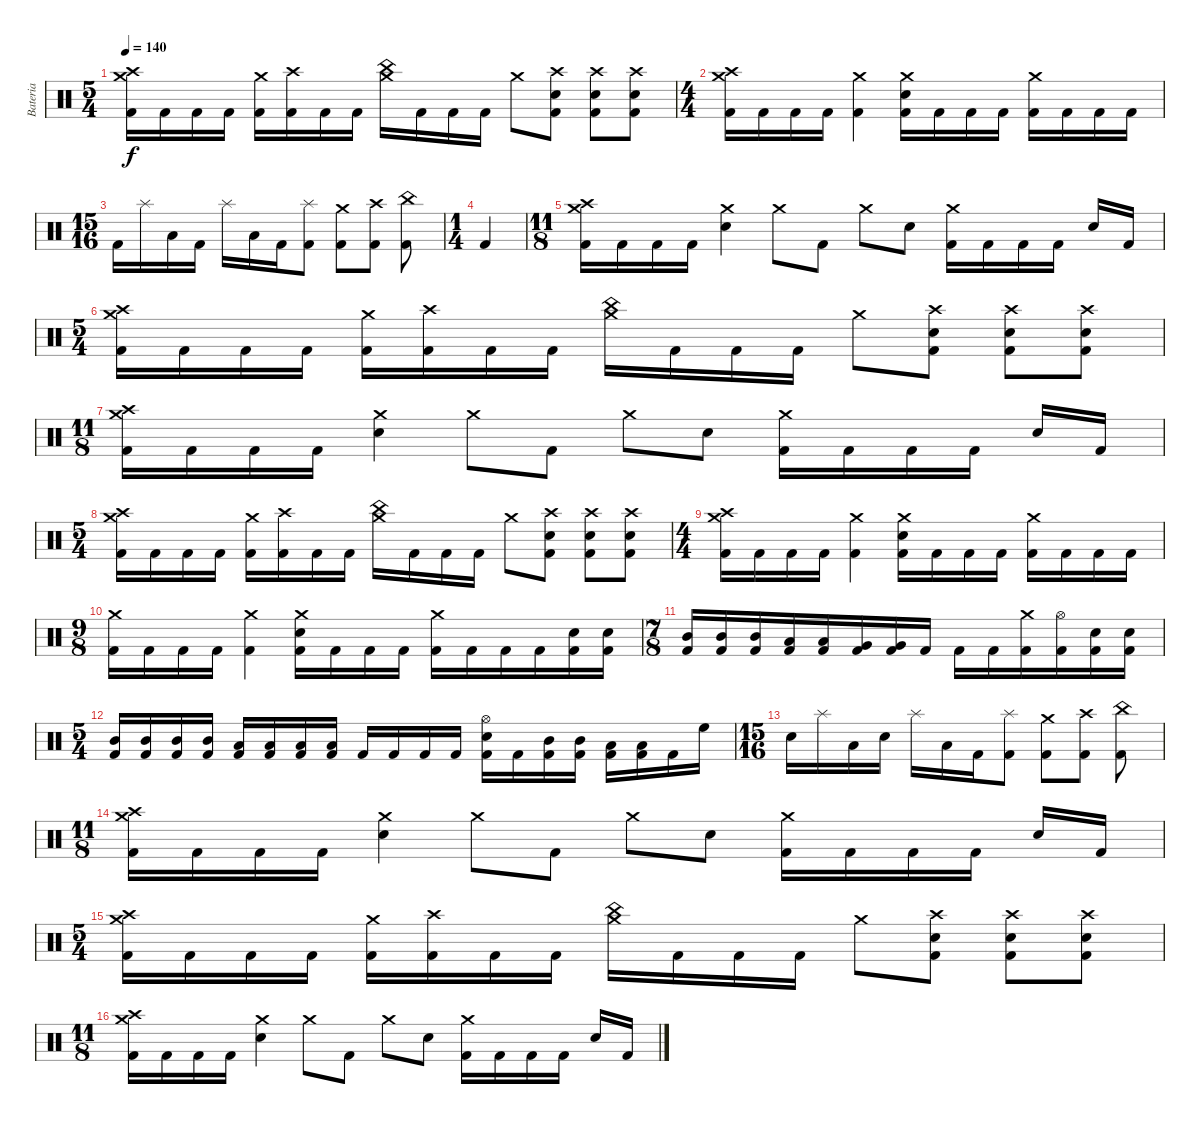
\track ("Bateria" "Bateria") {instrument percussion}
\staff {score}
\articulation defaults
\ts (5 4)
\tempo 140
\clef neutral
\ks c
("Crash medium (hit)" "Crash high (hit)" "Kick (hit) 2").16{dy f} "Kick (hit) 2".16 "Kick (hit) 2".16 "Kick (hit) 2".16 ("Crash medium (hit)" "Kick (hit) 2").16 ("Crash high (hit)" "Kick (hit) 2").16 "Kick (hit) 2".16 "Kick (hit) 2".16 ("China (hit)" "Crash medium (hit)").16 "Kick (hit) 2".16 "Kick (hit) 2".16 "Kick (hit) 2".16 "Crash medium (hit)".8 ("Crash high (hit)" "Snare (hit) 2" "Kick (hit) 2").8 ("Crash high (hit)" "Snare (hit) 2" "Kick (hit) 2").8 ("Crash high (hit)" "Snare (hit) 2" "Kick (hit) 2").8 |
\ts (4 4)
("Crash high (hit)" "Crash medium (hit)" "Kick (hit) 2").16 "Kick (hit) 2".16 "Kick (hit) 2".16 "Kick (hit) 2".16 ("Crash medium (hit)" "Kick (hit) 2").4 ("Crash medium (hit)" "Snare (hit) 2" "Kick (hit) 2").16 "Kick (hit) 2".16 "Kick (hit) 2".16 "Kick (hit) 2".16 ("Crash medium (hit)" "Kick (hit) 2").16 "Kick (hit) 2".16 "Kick (hit) 2".16 "Kick (hit) 2".16 |
\ts (15 16)
"Kick (hit) 2".16 "Splash (hit)".16 "Low Tom (hit)".16 "Kick (hit) 2".16 "Splash (hit)".16 "Low Tom (hit)".16 "Kick (hit) 2".16 ("Splash (hit)" "Kick (hit) 2").8 ("Crash medium (hit)" "Kick (hit) 2").8 ("Crash high (hit)" "Kick (hit) 2").8 ("China (hit)" "Kick (hit) 2").8 |
\ts (1 4)
"Kick (hit) 2".4 |
\ts (11 8)
("Crash high (hit)" "Crash medium (hit)" "Kick (hit) 2").16 "Kick (hit) 2".16 "Kick (hit) 2".16 "Kick (hit) 2".16 ("Crash medium (hit)" "Snare (hit) 2").4 "Crash medium (hit)".8 "Kick (hit) 2".8 "Crash medium (hit)".8 "Snare (hit) 2".8 ("Crash medium (hit)" "Kick (hit) 2").16 "Kick (hit) 2".16 "Kick (hit) 2".16 "Kick (hit) 2".16 "Snare (hit) 2".16 "Kick (hit) 2".16 |
\ts (5 4)
("Crash medium (hit)" "Crash high (hit)" "Kick (hit) 2").16 "Kick (hit) 2".16 "Kick (hit) 2".16 "Kick (hit) 2".16 ("Crash medium (hit)" "Kick (hit) 2").16 ("Crash high (hit)" "Kick (hit) 2").16 "Kick (hit) 2".16 "Kick (hit) 2".16 ("China (hit)" "Crash medium (hit)").16 "Kick (hit) 2".16 "Kick (hit) 2".16 "Kick (hit) 2".16 "Crash medium (hit)".8 ("Crash high (hit)" "Snare (hit) 2" "Kick (hit) 2").8 ("Crash high (hit)" "Snare (hit) 2" "Kick (hit) 2").8 ("Crash high (hit)" "Snare (hit) 2" "Kick (hit) 2").8 |
\ts (11 8)
("Crash high (hit)" "Crash medium (hit)" "Kick (hit) 2").16 "Kick (hit) 2".16 "Kick (hit) 2".16 "Kick (hit) 2".16 ("Crash medium (hit)" "Snare (hit) 2").4 "Crash medium (hit)".8 "Kick (hit) 2".8 "Crash medium (hit)".8 "Snare (hit) 2".8 ("Crash medium (hit)" "Kick (hit) 2").16 "Kick (hit) 2".16 "Kick (hit) 2".16 "Kick (hit) 2".16 "Snare (hit) 2".16 "Kick (hit) 2".16 |
\ts (5 4)
("Crash medium (hit)" "Crash high (hit)" "Kick (hit) 2").16 "Kick (hit) 2".16 "Kick (hit) 2".16 "Kick (hit) 2".16 ("Crash medium (hit)" "Kick (hit) 2").16 ("Crash high (hit)" "Kick (hit) 2").16 "Kick (hit) 2".16 "Kick (hit) 2".16 ("China (hit)" "Crash medium (hit)").16 "Kick (hit) 2".16 "Kick (hit) 2".16 "Kick (hit) 2".16 "Crash medium (hit)".8 ("Crash high (hit)" "Snare (hit) 2" "Kick (hit) 2").8 ("Crash high (hit)" "Snare (hit) 2" "Kick (hit) 2").8 ("Crash high (hit)" "Snare (hit) 2" "Kick (hit) 2").8 |
\ts (4 4)
("Crash high (hit)" "Crash medium (hit)" "Kick (hit) 2").16 "Kick (hit) 2".16 "Kick (hit) 2".16 "Kick (hit) 2".16 ("Crash medium (hit)" "Kick (hit) 2").4 ("Crash medium (hit)" "Snare (hit) 2" "Kick (hit) 2").16 "Kick (hit) 2".16 "Kick (hit) 2".16 "Kick (hit) 2".16 ("Crash medium (hit)" "Kick (hit) 2").16 "Kick (hit) 2".16 "Kick (hit) 2".16 "Kick (hit) 2".16 |
\ts (9 8)
("Crash medium (hit)" "Kick (hit) 2").16 "Kick (hit) 2".16 "Kick (hit) 2".16 "Kick (hit) 2".16 ("Crash medium (hit)" "Kick (hit) 2").4 ("Crash medium (hit)" "Snare (hit) 2" "Kick (hit) 2").16 "Kick (hit) 2".16 "Kick (hit) 2".16 "Kick (hit) 2".16 ("Crash medium (hit)" "Kick (hit) 2").16 "Kick (hit) 2".16 "Kick (hit) 2".16 "Kick (hit) 2".16 ("Snare (hit) 2" "Kick (hit) 2").16 ("Snare (hit) 2" "Kick (hit) 2").16 |
\ts (7 8)
("Mid Tom (hit)" "Kick (hit) 2").16 ("Mid Tom (hit)" "Kick (hit) 2").16 ("Mid Tom (hit)" "Kick (hit) 2").16 ("Low Tom (hit)" "Kick (hit) 2").16 ("Low Tom (hit)" "Kick (hit) 2").16 ("Very Low Tom (hit)" "Kick (hit) 2").16 ("Very Low Tom (hit)" "Kick (hit) 2").16 "Kick (hit) 2".16 "Kick (hit) 2".16 "Kick (hit) 2".16 ("Crash medium (hit)" "Kick (hit) 2").16 ("Hi-Hat (open)" "Kick (hit) 2").16 ("Snare (hit) 2" "Kick (hit) 2").16 ("Snare (hit) 2" "Kick (hit) 2").16 |
\ts (5 4)
("Mid Tom (hit)" "Kick (hit) 2").16 ("Mid Tom (hit)" "Kick (hit) 2").16 ("Mid Tom (hit)" "Kick (hit) 2").16 ("Mid Tom (hit)" "Kick (hit) 2").16 ("Low Tom (hit)" "Kick (hit) 2").16 ("Low Tom (hit)" "Kick (hit) 2").16 ("Low Tom (hit)" "Kick (hit) 2").16 ("Low Tom (hit)" "Kick (hit) 2").16 "Kick (hit) 2".16 "Kick (hit) 2".16 "Kick (hit) 2".16 "Kick (hit) 2".16 ("Hi-Hat (open)" "Snare (hit) 2" "Kick (hit) 2").16 "Kick (hit) 2".16 ("Mid Tom (hit)" "Kick (hit) 2").16 ("Mid Tom (hit)" "Kick (hit) 2").16 ("Low Tom (hit)" "Kick (hit) 2").16 ("Low Tom (hit)" "Kick (hit) 2").16 "Kick (hit) 2".16 "High Floor Tom (hit)".16 |
\ts (15 16)
"Snare (hit) 2".16 "Splash (hit)".16 "Low Tom (hit)".16 "Snare (hit) 2".16 "Splash (hit)".16 "Low Tom (hit)".16 "Kick (hit) 2".16 ("Splash (hit)" "Kick (hit) 2").8 ("Crash medium (hit)" "Kick (hit) 2").8 ("Crash high (hit)" "Kick (hit) 2").8 ("China (hit)" "Kick (hit) 2").8 |
\ts (11 8)
("Crash high (hit)" "Crash medium (hit)" "Kick (hit) 2").16 "Kick (hit) 2".16 "Kick (hit) 2".16 "Kick (hit) 2".16 ("Crash medium (hit)" "Snare (hit) 2").4 "Crash medium (hit)".8 "Kick (hit) 2".8 "Crash medium (hit)".8 "Snare (hit) 2".8 ("Crash medium (hit)" "Kick (hit) 2").16 "Kick (hit) 2".16 "Kick (hit) 2".16 "Kick (hit) 2".16 "Snare (hit) 2".16 "Kick (hit) 2".16 |
\ts (5 4)
("Crash medium (hit)" "Crash high (hit)" "Kick (hit) 2").16 "Kick (hit) 2".16 "Kick (hit) 2".16 "Kick (hit) 2".16 ("Crash medium (hit)" "Kick (hit) 2").16 ("Crash high (hit)" "Kick (hit) 2").16 "Kick (hit) 2".16 "Kick (hit) 2".16 ("China (hit)" "Crash medium (hit)").16 "Kick (hit) 2".16 "Kick (hit) 2".16 "Kick (hit) 2".16 "Crash medium (hit)".8 ("Crash high (hit)" "Snare (hit) 2" "Kick (hit) 2").8 ("Crash high (hit)" "Snare (hit) 2" "Kick (hit) 2").8 ("Crash high (hit)" "Snare (hit) 2" "Kick (hit) 2").8 |
\ts (11 8)
("Crash high (hit)" "Crash medium (hit)" "Kick (hit) 2").16 "Kick (hit) 2".16 "Kick (hit) 2".16 "Kick (hit) 2".16 ("Crash medium (hit)" "Snare (hit) 2").4 "Crash medium (hit)".8 "Kick (hit) 2".8 "Crash medium (hit)".8 "Snare (hit) 2".8 ("Crash medium (hit)" "Kick (hit) 2").16 "Kick (hit) 2".16 "Kick (hit) 2".16 "Kick (hit) 2".16 "Snare (hit) 2".16 "Kick (hit) 2".16
